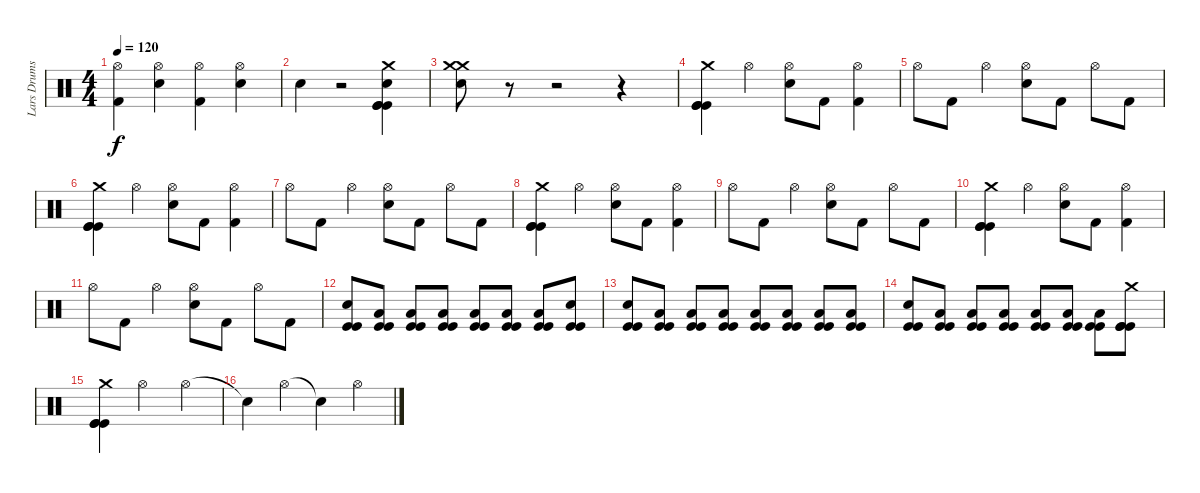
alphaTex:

\track ("Lars Drums" "Lars Drums") {instrument percussion}
\staff {score}
\articulation defaults
\ts (4 4)
\tempo 120
\clef neutral
\ks c
("Hi-Hat (open)" "Kick (hit) 2").4{dy f} ("Hi-Hat (open)" "Electric Snare (hit)").4 ("Hi-Hat (open)" "Kick (hit) 2").4 ("Hi-Hat (open)" "Electric Snare (hit)").4 |
"Electric Snare (hit)".4 r.2 ("Electric Snare (hit)" "Kick (hit)" "Kick (hit)" "Kick (hit)" "Crash medium (hit)").4 |
("Electric Snare (hit)" "Crash medium (hit)" "Crash medium (hit)").8 r.8 r.2 r.4 |
("Kick (hit)" "Kick (hit)" "Kick (hit)" "Crash medium (hit)").4 "Hi-Hat (open)".4 ("Hi-Hat (open)" "Electric Snare (hit)").8 "Kick (hit) 2".8 ("Hi-Hat (open)" "Kick (hit) 2").4 |
"Hi-Hat (open)".8 "Kick (hit) 2".8 "Hi-Hat (open)".4 ("Hi-Hat (open)" "Electric Snare (hit)").8 "Kick (hit) 2".8 "Hi-Hat (open)".8 "Kick (hit) 2".8 |
("Kick (hit)" "Kick (hit)" "Kick (hit)" "Crash medium (hit)").4 "Hi-Hat (open)".4 ("Hi-Hat (open)" "Electric Snare (hit)").8 "Kick (hit) 2".8 ("Hi-Hat (open)" "Kick (hit) 2").4 |
"Hi-Hat (open)".8 "Kick (hit) 2".8 "Hi-Hat (open)".4 ("Hi-Hat (open)" "Electric Snare (hit)").8 "Kick (hit) 2".8 "Hi-Hat (open)".8 "Kick (hit) 2".8 |
("Kick (hit)" "Kick (hit)" "Kick (hit)" "Crash medium (hit)").4 "Hi-Hat (open)".4 ("Hi-Hat (open)" "Electric Snare (hit)").8 "Kick (hit) 2".8 ("Hi-Hat (open)" "Kick (hit) 2").4 |
"Hi-Hat (open)".8 "Kick (hit) 2".8 "Hi-Hat (open)".4 ("Hi-Hat (open)" "Electric Snare (hit)").8 "Kick (hit) 2".8 "Hi-Hat (open)".8 "Kick (hit) 2".8 |
("Kick (hit)" "Kick (hit)" "Kick (hit)" "Crash medium (hit)").4 "Hi-Hat (open)".4 ("Hi-Hat (open)" "Electric Snare (hit)").8 "Kick (hit) 2".8 ("Hi-Hat (open)" "Kick (hit) 2").4 |
"Hi-Hat (open)".8 "Kick (hit) 2".8 "Hi-Hat (open)".4 ("Hi-Hat (open)" "Electric Snare (hit)").8 "Kick (hit) 2".8 "Hi-Hat (open)".8 "Kick (hit) 2".8 |
("Electric Snare (hit)" "Kick (hit)" "Kick (hit)").8 ("Low Tom (hit)" "Kick (hit)" "Kick (hit)").8 ("Low Tom (hit)" "Kick (hit)" "Kick (hit)").8 ("Low Tom (hit)" "Kick (hit)" "Kick (hit)").8 ("Low Tom (hit)" "Kick (hit)" "Kick (hit)").8 ("Low Tom (hit)" "Kick (hit)" "Kick (hit)").8 ("Low Tom (hit)" "Kick (hit)" "Kick (hit)").8 ("Electric Snare (hit)" "Kick (hit)" "Kick (hit)").8 |
("Electric Snare (hit)" "Kick (hit)" "Kick (hit)").8 ("Low Tom (hit)" "Kick (hit)" "Kick (hit)").8 ("Low Tom (hit)" "Kick (hit)" "Kick (hit)").8 ("Low Tom (hit)" "Kick (hit)" "Kick (hit)").8 ("Low Tom (hit)" "Kick (hit)" "Kick (hit)").8 ("Low Tom (hit)" "Kick (hit)" "Kick (hit)").8 ("Low Tom (hit)" "Kick (hit)" "Kick (hit)").8 ("Low Tom (hit)" "Kick (hit)" "Kick (hit)").8 |
("Electric Snare (hit)" "Kick (hit)" "Kick (hit)").8 ("Low Tom (hit)" "Kick (hit)" "Kick (hit)").8 ("Low Tom (hit)" "Kick (hit)" "Kick (hit)").8 ("Low Tom (hit)" "Kick (hit)" "Kick (hit)").8 ("Low Tom (hit)" "Kick (hit)" "Kick (hit)").8 ("Low Tom (hit)" "Kick (hit)" "Kick (hit)").8 ("Low Tom (hit)" "Kick (hit)" "Kick (hit)").8 ("Kick (hit)" "Kick (hit)" "Kick (hit)" "Crash medium (hit)").8 |
("Kick (hit)" "Kick (hit)" "Kick (hit)" "Crash medium (hit)").4 "Hi-Hat (open)".2 "Hi-Hat (open)".4 |
"Snare (hit)"{t}.4 "Hi-Hat (open)".4 "Snare (hit)"{t}.4 "Hi-Hat (open)".4
